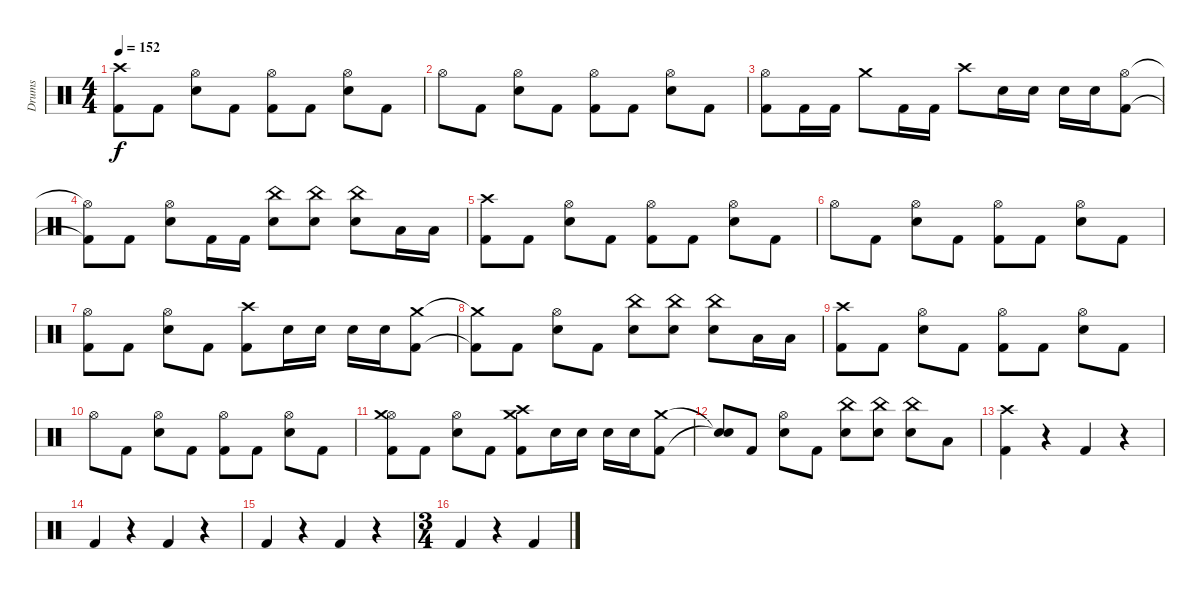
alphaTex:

\track ("Drums" "Drums") {instrument percussion}
\staff {score}
\articulation defaults
\ts (4 4)
\tempo 152
\clef neutral
\ks c
("Crash high (hit)" "Kick (hit) 2").8{dy f} "Kick (hit) 2".8 ("Hi-Hat (open)" "Electric Snare (hit)").8 "Kick (hit) 2".8 ("Hi-Hat (open)" "Kick (hit) 2").8 "Kick (hit) 2".8 ("Hi-Hat (open)" "Electric Snare (hit)").8 "Kick (hit) 2".8 |
"Hi-Hat (open)".8 "Kick (hit) 2".8 ("Hi-Hat (open)" "Electric Snare (hit)").8 "Kick (hit) 2".8 ("Hi-Hat (open)" "Kick (hit) 2").8 "Kick (hit) 2".8 ("Hi-Hat (open)" "Electric Snare (hit)").8 "Kick (hit) 2".8 |
("Hi-Hat (open)" "Kick (hit) 2").8 "Kick (hit) 2".16 "Kick (hit) 2".16 "Crash medium (hit)".8 "Kick (hit) 2".16 "Kick (hit) 2".16 "Crash high (hit)".8 "Electric Snare (hit)".16 "Electric Snare (hit)".16 "Electric Snare (hit)".16 "Electric Snare (hit)".16 ("Hi-Hat (open)" "Kick (hit) 2").8 |
("Hi-Hat (open)"{t} "Kick (hit) 2"{t}).8 "Kick (hit) 2".8 ("Hi-Hat (open)" "Electric Snare (hit)").8 "Kick (hit) 2".16 "Kick (hit) 2".16 ("China (hit)" "Electric Snare (hit)").8 ("China (hit)" "Electric Snare (hit)").8 ("China (hit)" "Electric Snare (hit)").8 "Low Tom (hit)".16 "Low Tom (hit)".16 |
("Crash high (hit)" "Kick (hit) 2").8 "Kick (hit) 2".8 ("Hi-Hat (open)" "Electric Snare (hit)").8 "Kick (hit) 2".8 ("Hi-Hat (open)" "Kick (hit) 2").8 "Kick (hit) 2".8 ("Hi-Hat (open)" "Electric Snare (hit)").8 "Kick (hit) 2".8 |
"Hi-Hat (open)".8 "Kick (hit) 2".8 ("Hi-Hat (open)" "Electric Snare (hit)").8 "Kick (hit) 2".8 ("Hi-Hat (open)" "Kick (hit) 2").8 "Kick (hit) 2".8 ("Hi-Hat (open)" "Electric Snare (hit)").8 "Kick (hit) 2".8 |
("Hi-Hat (open)" "Kick (hit) 2").8 "Kick (hit) 2".8 ("Hi-Hat (open)" "Electric Snare (hit)").8 "Kick (hit) 2".8 ("Crash high (hit)" "Kick (hit) 2").8 "Electric Snare (hit)".16 "Electric Snare (hit)".16 "Electric Snare (hit)".16 "Electric Snare (hit)".16 ("Crash medium (hit)" "Kick (hit) 2").8 |
("Crash medium (hit)"{t} "Kick (hit) 2"{t}).8 "Kick (hit) 2".8 ("Hi-Hat (open)" "Electric Snare (hit)").8 "Kick (hit) 2".8 ("China (hit)" "Electric Snare (hit)").8 ("China (hit)" "Electric Snare (hit)").8 ("China (hit)" "Electric Snare (hit)").8 "Low Tom (hit)".16 "Low Tom (hit)".16 |
("Crash high (hit)" "Kick (hit) 2").8 "Kick (hit) 2".8 ("Hi-Hat (open)" "Electric Snare (hit)").8 "Kick (hit) 2".8 ("Hi-Hat (open)" "Kick (hit) 2").8 "Kick (hit) 2".8 ("Hi-Hat (open)" "Electric Snare (hit)").8 "Kick (hit) 2".8 |
"Hi-Hat (open)".8 "Kick (hit) 2".8 ("Hi-Hat (open)" "Electric Snare (hit)").8 "Kick (hit) 2".8 ("Hi-Hat (open)" "Kick (hit) 2").8 "Kick (hit) 2".8 ("Hi-Hat (open)" "Electric Snare (hit)").8 "Kick (hit) 2".8 |
("Hi-Hat (open)" "Crash medium (hit)" "Kick (hit) 2").8 "Kick (hit) 2".8 ("Hi-Hat (open)" "Electric Snare (hit)").8 "Kick (hit) 2".8 ("Crash high (hit)" "Crash medium (hit)" "Kick (hit) 2").8 "Electric Snare (hit)".16 "Electric Snare (hit)".16 "Electric Snare (hit)".16 "Electric Snare (hit)".16 ("Crash medium (hit)" "Kick (hit) 2").8 |
("Snare (hit)"{t} "Snare (hit)"{t}).8 "Kick (hit) 2".8 ("Hi-Hat (open)" "Electric Snare (hit)").8 "Kick (hit) 2".8 ("China (hit)" "Electric Snare (hit)").8 ("China (hit)" "Electric Snare (hit)").8 ("China (hit)" "Electric Snare (hit)").8 "Low Tom (hit)".8 |
("Crash high (hit)" "Kick (hit) 2").4 r.4 "Kick (hit) 2".4 r.4 |
"Kick (hit) 2".4 r.4 "Kick (hit) 2".4 r.4 |
"Kick (hit) 2".4 r.4 "Kick (hit) 2".4 r.4 |
\ts (3 4)
"Kick (hit) 2".4 r.4 "Kick (hit) 2".4
